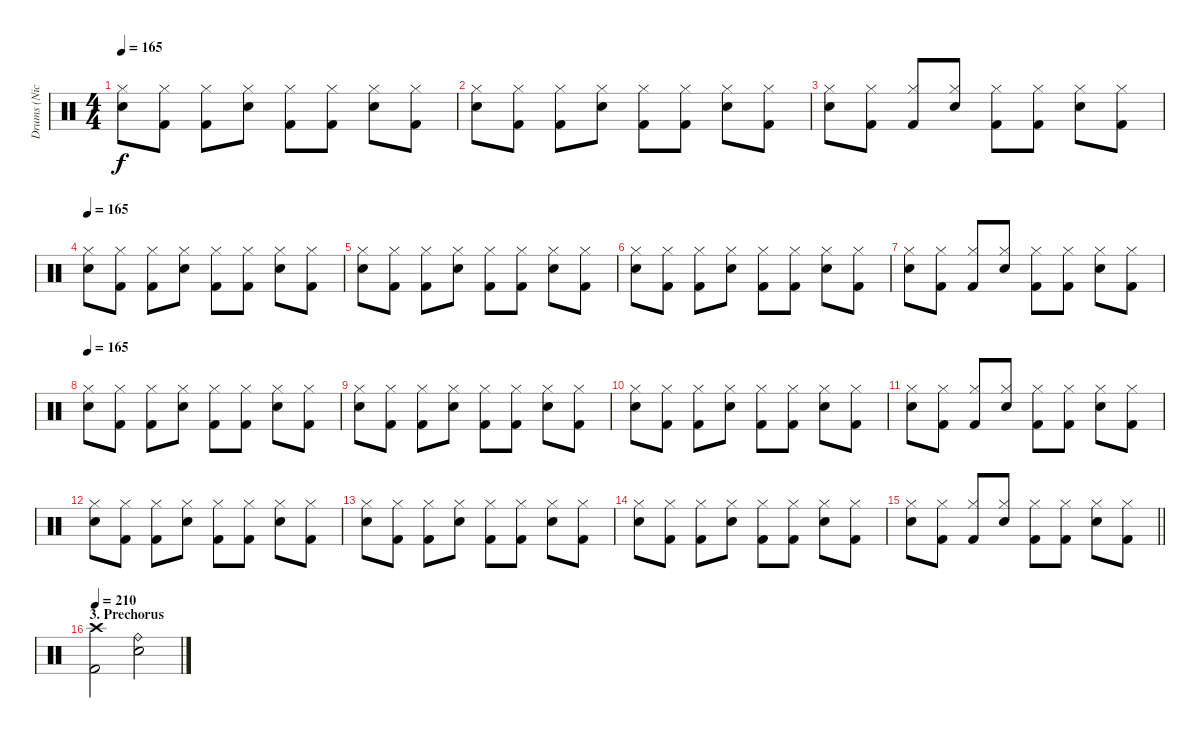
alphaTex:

\track ("Drums (Nicko McBrain)" "Drums (Nic") {instrument percussion}
\staff {score}
\articulation defaults
\ts (4 4)
\tempo 165
\clef neutral
\ks c
("Hi-Hat (closed)" "Electric Snare (hit)").8{dy f} ("Hi-Hat (closed)" "Kick (hit) 2").8 ("Hi-Hat (closed)" "Kick (hit) 2").8 ("Hi-Hat (closed)" "Electric Snare (hit)").8 ("Hi-Hat (closed)" "Kick (hit) 2").8 ("Hi-Hat (closed)" "Kick (hit) 2").8 ("Hi-Hat (closed)" "Electric Snare (hit)").8 ("Hi-Hat (closed)" "Kick (hit) 2").8 |
("Hi-Hat (closed)" "Electric Snare (hit)").8 ("Hi-Hat (closed)" "Kick (hit) 2").8 ("Hi-Hat (closed)" "Kick (hit) 2").8 ("Hi-Hat (closed)" "Electric Snare (hit)").8 ("Hi-Hat (closed)" "Kick (hit) 2").8 ("Hi-Hat (closed)" "Kick (hit) 2").8 ("Hi-Hat (closed)" "Electric Snare (hit)").8 ("Hi-Hat (closed)" "Kick (hit) 2").8 |
("Hi-Hat (closed)" "Electric Snare (hit)").8 ("Hi-Hat (closed)" "Kick (hit) 2").8 ("Hi-Hat (closed)" "Kick (hit) 2").8{beam Up} ("Hi-Hat (closed)" "Electric Snare (hit)").8{beam Up} ("Hi-Hat (closed)" "Kick (hit) 2").8 ("Hi-Hat (closed)" "Kick (hit) 2").8 ("Hi-Hat (closed)" "Electric Snare (hit)").8 ("Hi-Hat (closed)" "Kick (hit) 2").8 |
\tempo 165
("Hi-Hat (closed)" "Electric Snare (hit)").8 ("Hi-Hat (closed)" "Kick (hit) 2").8 ("Hi-Hat (closed)" "Kick (hit) 2").8 ("Hi-Hat (closed)" "Electric Snare (hit)").8 ("Hi-Hat (closed)" "Kick (hit) 2").8 ("Hi-Hat (closed)" "Kick (hit) 2").8 ("Hi-Hat (closed)" "Electric Snare (hit)").8 ("Hi-Hat (closed)" "Kick (hit) 2").8 |
("Hi-Hat (closed)" "Electric Snare (hit)").8 ("Hi-Hat (closed)" "Kick (hit) 2").8 ("Hi-Hat (closed)" "Kick (hit) 2").8 ("Hi-Hat (closed)" "Electric Snare (hit)").8 ("Hi-Hat (closed)" "Kick (hit) 2").8 ("Hi-Hat (closed)" "Kick (hit) 2").8 ("Hi-Hat (closed)" "Electric Snare (hit)").8 ("Hi-Hat (closed)" "Kick (hit) 2").8 |
("Hi-Hat (closed)" "Electric Snare (hit)").8 ("Hi-Hat (closed)" "Kick (hit) 2").8 ("Hi-Hat (closed)" "Kick (hit) 2").8 ("Hi-Hat (closed)" "Electric Snare (hit)").8 ("Hi-Hat (closed)" "Kick (hit) 2").8 ("Hi-Hat (closed)" "Kick (hit) 2").8 ("Hi-Hat (closed)" "Electric Snare (hit)").8 ("Hi-Hat (closed)" "Kick (hit) 2").8 |
("Hi-Hat (closed)" "Electric Snare (hit)").8 ("Hi-Hat (closed)" "Kick (hit) 2").8 ("Hi-Hat (closed)" "Kick (hit) 2").8{beam Up} ("Hi-Hat (closed)" "Electric Snare (hit)").8{beam Up} ("Hi-Hat (closed)" "Kick (hit) 2").8 ("Hi-Hat (closed)" "Kick (hit) 2").8 ("Hi-Hat (closed)" "Electric Snare (hit)").8 ("Hi-Hat (closed)" "Kick (hit) 2").8 |
\tempo 165
("Hi-Hat (closed)" "Electric Snare (hit)").8 ("Hi-Hat (closed)" "Kick (hit) 2").8 ("Hi-Hat (closed)" "Kick (hit) 2").8 ("Hi-Hat (closed)" "Electric Snare (hit)").8 ("Hi-Hat (closed)" "Kick (hit) 2").8 ("Hi-Hat (closed)" "Kick (hit) 2").8 ("Hi-Hat (closed)" "Electric Snare (hit)").8 ("Hi-Hat (closed)" "Kick (hit) 2").8 |
("Hi-Hat (closed)" "Electric Snare (hit)").8 ("Hi-Hat (closed)" "Kick (hit) 2").8 ("Hi-Hat (closed)" "Kick (hit) 2").8 ("Hi-Hat (closed)" "Electric Snare (hit)").8 ("Hi-Hat (closed)" "Kick (hit) 2").8 ("Hi-Hat (closed)" "Kick (hit) 2").8 ("Hi-Hat (closed)" "Electric Snare (hit)").8 ("Hi-Hat (closed)" "Kick (hit) 2").8 |
("Hi-Hat (closed)" "Electric Snare (hit)").8 ("Hi-Hat (closed)" "Kick (hit) 2").8 ("Hi-Hat (closed)" "Kick (hit) 2").8 ("Hi-Hat (closed)" "Electric Snare (hit)").8 ("Hi-Hat (closed)" "Kick (hit) 2").8 ("Hi-Hat (closed)" "Kick (hit) 2").8 ("Hi-Hat (closed)" "Electric Snare (hit)").8 ("Hi-Hat (closed)" "Kick (hit) 2").8 |
("Hi-Hat (closed)" "Electric Snare (hit)").8 ("Hi-Hat (closed)" "Kick (hit) 2").8 ("Hi-Hat (closed)" "Kick (hit) 2").8{beam Up} ("Hi-Hat (closed)" "Electric Snare (hit)").8{beam Up} ("Hi-Hat (closed)" "Kick (hit) 2").8 ("Hi-Hat (closed)" "Kick (hit) 2").8 ("Hi-Hat (closed)" "Electric Snare (hit)").8 ("Hi-Hat (closed)" "Kick (hit) 2").8 |
("Hi-Hat (closed)" "Electric Snare (hit)").8 ("Hi-Hat (closed)" "Kick (hit) 2").8 ("Hi-Hat (closed)" "Kick (hit) 2").8 ("Hi-Hat (closed)" "Electric Snare (hit)").8 ("Hi-Hat (closed)" "Kick (hit) 2").8 ("Hi-Hat (closed)" "Kick (hit) 2").8 ("Hi-Hat (closed)" "Electric Snare (hit)").8 ("Hi-Hat (closed)" "Kick (hit) 2").8 |
("Hi-Hat (closed)" "Electric Snare (hit)").8 ("Hi-Hat (closed)" "Kick (hit) 2").8 ("Hi-Hat (closed)" "Kick (hit) 2").8 ("Hi-Hat (closed)" "Electric Snare (hit)").8 ("Hi-Hat (closed)" "Kick (hit) 2").8 ("Hi-Hat (closed)" "Kick (hit) 2").8 ("Hi-Hat (closed)" "Electric Snare (hit)").8 ("Hi-Hat (closed)" "Kick (hit) 2").8 |
("Hi-Hat (closed)" "Electric Snare (hit)").8 ("Hi-Hat (closed)" "Kick (hit) 2").8 ("Hi-Hat (closed)" "Kick (hit) 2").8 ("Hi-Hat (closed)" "Electric Snare (hit)").8 ("Hi-Hat (closed)" "Kick (hit) 2").8 ("Hi-Hat (closed)" "Kick (hit) 2").8 ("Hi-Hat (closed)" "Electric Snare (hit)").8 ("Hi-Hat (closed)" "Kick (hit) 2").8 |
\barLineRight lightlight
("Hi-Hat (closed)" "Electric Snare (hit)").8 ("Hi-Hat (closed)" "Kick (hit) 2").8 ("Hi-Hat (closed)" "Kick (hit) 2").8{beam Up} ("Hi-Hat (closed)" "Electric Snare (hit)").8{beam Up} ("Hi-Hat (closed)" "Kick (hit) 2").8 ("Hi-Hat (closed)" "Kick (hit) 2").8 ("Hi-Hat (closed)" "Electric Snare (hit)").8 ("Hi-Hat (closed)" "Kick (hit) 2").8 |
\section ("" "3. Prechorus")
\tempo 210
("Crash high (hit)" "Kick (hit) 2").2 ("Ride (bell)" "Electric Snare (hit)").2
